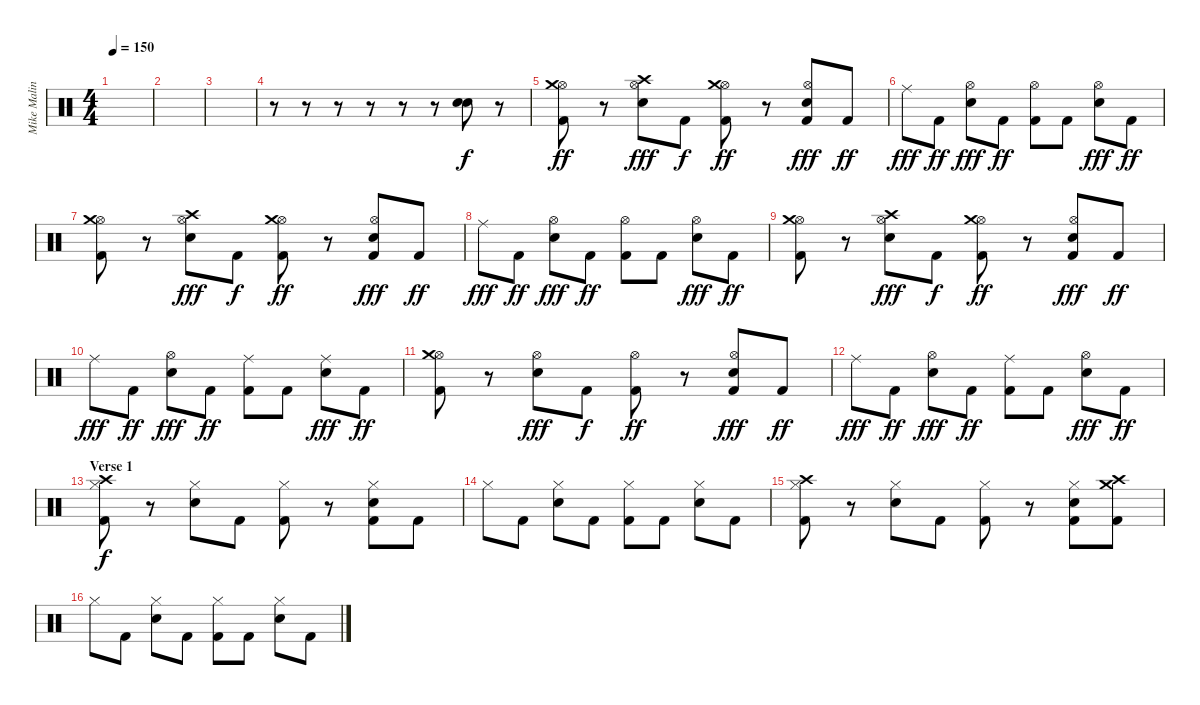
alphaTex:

\track ("Mike Malinin - Drums" "Mike Malin") {instrument percussion}
\staff {score}
\articulation defaults
\ts (4 4)
\tempo 150
\clef neutral
\ks c
|
|
|
r.8 r.8 r.8 r.8 r.8 r.8 ("Snare (hit) 2" "Snare (hit) 2").8 r.8 |
("Hi-Hat (open)" "Crash medium (hit)" "Kick (hit) 2").8{dy ff} r.8 ("Crash high (hit)" "Hi-Hat (open)" "Snare (hit) 2").8{dy fff} "Kick (hit) 2".8{dy f} ("Hi-Hat (open)" "Crash medium (hit)" "Kick (hit) 2").8{dy ff} r.8 ("Hi-Hat (open)" "Snare (hit) 2" "Kick (hit) 2").8{dy fff} "Kick (hit) 2".8{dy ff} |
"Ride (middle)".8{dy fff} "Kick (hit) 2".8{dy ff} ("Hi-Hat (open)" "Snare (hit) 2").8{dy fff} "Kick (hit) 2".8{dy ff} ("Hi-Hat (open)" "Kick (hit) 2").8 "Kick (hit) 2".8 ("Hi-Hat (open)" "Snare (hit) 2").8{dy fff} "Kick (hit) 2".8{dy ff} |
("Hi-Hat (open)" "Crash medium (hit)" "Kick (hit) 2").8 r.8 ("Crash high (hit)" "Hi-Hat (open)" "Snare (hit) 2").8{dy fff} "Kick (hit) 2".8{dy f} ("Hi-Hat (open)" "Crash medium (hit)" "Kick (hit) 2").8{dy ff} r.8 ("Hi-Hat (open)" "Snare (hit) 2" "Kick (hit) 2").8{dy fff} "Kick (hit) 2".8{dy ff} |
"Ride (middle)".8{dy fff} "Kick (hit) 2".8{dy ff} ("Hi-Hat (open)" "Snare (hit) 2").8{dy fff} "Kick (hit) 2".8{dy ff} ("Hi-Hat (open)" "Kick (hit) 2").8 "Kick (hit) 2".8 ("Hi-Hat (open)" "Snare (hit) 2").8{dy fff} "Kick (hit) 2".8{dy ff} |
("Hi-Hat (open)" "Crash medium (hit)" "Kick (hit) 2").8 r.8 ("Crash high (hit)" "Hi-Hat (open)" "Snare (hit) 2").8{dy fff} "Kick (hit) 2".8{dy f} ("Hi-Hat (open)" "Crash medium (hit)" "Kick (hit) 2").8{dy ff} r.8 ("Hi-Hat (open)" "Snare (hit) 2" "Kick (hit) 2").8{dy fff} "Kick (hit) 2".8{dy ff} |
"Ride (middle)".8{dy fff} "Kick (hit) 2".8{dy ff} ("Hi-Hat (open)" "Snare (hit) 2").8{dy fff} "Kick (hit) 2".8{dy ff} ("Ride (middle)" "Kick (hit) 2").8 "Kick (hit) 2".8 ("Ride (middle)" "Snare (hit) 2").8{dy fff} "Kick (hit) 2".8{dy ff} |
("Hi-Hat (open)" "Crash medium (hit)" "Kick (hit) 2").8 r.8 ("Hi-Hat (open)" "Snare (hit) 2").8{dy fff} "Kick (hit) 2".8{dy f} ("Hi-Hat (open)" "Kick (hit) 2").8{dy ff} r.8 ("Hi-Hat (open)" "Snare (hit) 2" "Kick (hit) 2").8{dy fff} "Kick (hit) 2".8{dy ff} |
"Ride (middle)".8{dy fff} "Kick (hit) 2".8{dy ff} ("Hi-Hat (open)" "Snare (hit) 2").8{dy fff} "Kick (hit) 2".8{dy ff} ("Ride (middle)" "Kick (hit) 2").8 "Kick (hit) 2".8 ("Hi-Hat (open)" "Snare (hit) 2").8{dy fff} "Kick (hit) 2".8{dy ff} |
\section ("" "Verse 1")
("Crash high (hit)" "Hi-Hat (closed)" "Kick (hit) 2").8{dy f} r.8 ("Hi-Hat (closed)" "Snare (hit) 2").8 "Kick (hit) 2".8 ("Hi-Hat (closed)" "Kick (hit) 2").8 r.8 ("Hi-Hat (closed)" "Snare (hit) 2" "Kick (hit) 2").8 "Kick (hit) 2".8 |
"Hi-Hat (closed)".8 "Kick (hit) 2".8 ("Hi-Hat (closed)" "Snare (hit) 2").8 "Kick (hit) 2".8 ("Hi-Hat (closed)" "Kick (hit) 2").8 "Kick (hit) 2".8 ("Hi-Hat (closed)" "Snare (hit) 2").8 "Kick (hit) 2".8 |
("Crash high (hit)" "Hi-Hat (closed)" "Kick (hit) 2").8 r.8 ("Hi-Hat (closed)" "Snare (hit) 2").8 "Kick (hit) 2".8 ("Hi-Hat (closed)" "Kick (hit) 2").8 r.8 ("Hi-Hat (closed)" "Snare (hit) 2" "Kick (hit) 2").8 ("Crash high (hit)" "Crash medium (hit)" "Kick (hit) 2").8 |
"Hi-Hat (closed)".8 "Kick (hit) 2".8 ("Hi-Hat (closed)" "Snare (hit) 2").8 "Kick (hit) 2".8 ("Hi-Hat (closed)" "Kick (hit) 2").8 "Kick (hit) 2".8 ("Hi-Hat (closed)" "Snare (hit) 2").8 "Kick (hit) 2".8
